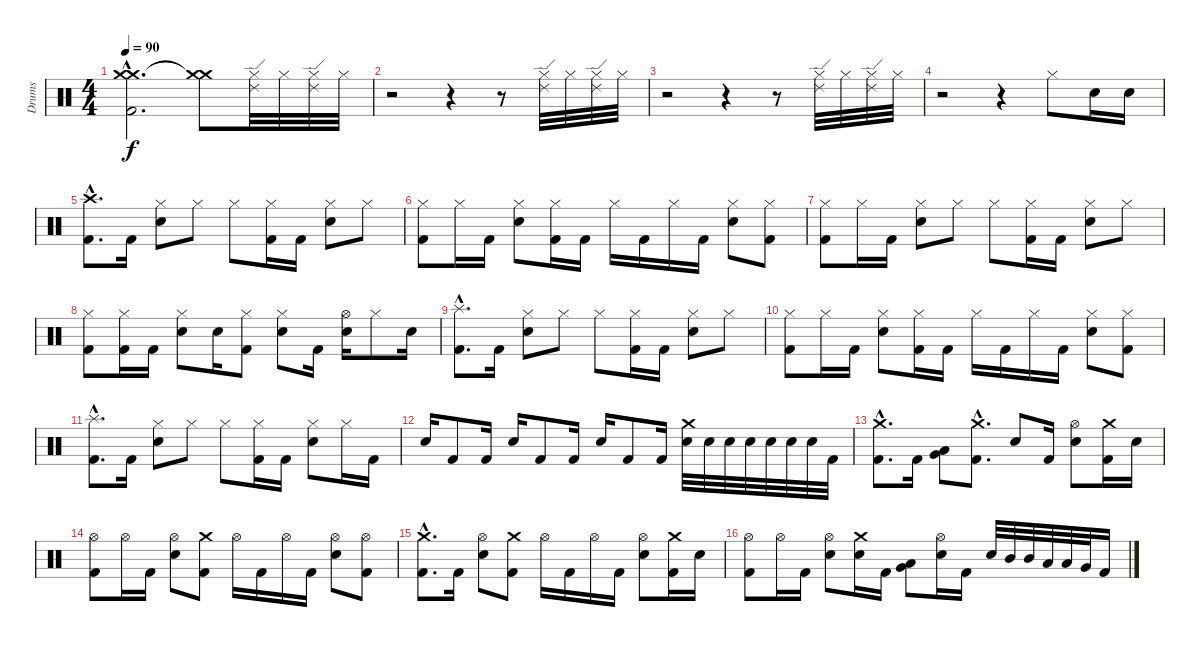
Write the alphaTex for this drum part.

\track ("Drums" "Drums") {instrument percussion}
\staff {score}
\articulation defaults
\ts (4 4)
\tempo 90
\clef neutral
\ks c
("Crash medium (hit)"{hac} "Crash medium (hit)"{hac} "Kick (hit) 2"{hac}).2{d dy f} ("Crash medium (hit)"{t} "Crash medium (hit)"{t}).8 ("Ride (edge) 2" "Hi-Hat (closed)").32 "Hi-Hat (closed)".32 ("Ride (edge) 2" "Hi-Hat (closed)").32 "Hi-Hat (closed)".32 |
r.2 r.4 r.8 ("Ride (edge) 2" "Hi-Hat (closed)").32 "Hi-Hat (closed)".32 ("Ride (edge) 2" "Hi-Hat (closed)").32 "Hi-Hat (closed)".32 |
r.2 r.4 r.8 ("Ride (edge) 2" "Hi-Hat (closed)").32 "Hi-Hat (closed)".32 ("Ride (edge) 2" "Hi-Hat (closed)").32 "Hi-Hat (closed)".32 |
r.2 r.4 "Hi-Hat (closed)".8 "Snare (hit) 2".16 "Snare (hit) 2".16 |
("Crash high (hit)"{hac} "Kick (hit) 2"{hac}).8{d} "Kick (hit) 2".16 ("Hi-Hat (closed)" "Snare (hit) 2").8 "Hi-Hat (closed)".8 "Hi-Hat (closed)".8 ("Hi-Hat (closed)" "Kick (hit) 2").16 "Kick (hit) 2".16 ("Hi-Hat (closed)" "Snare (hit) 2").8 "Hi-Hat (closed)".8 |
("Hi-Hat (closed)" "Kick (hit) 2").8 "Hi-Hat (closed)".16 "Kick (hit) 2".16 ("Hi-Hat (closed)" "Snare (hit) 2").8 ("Hi-Hat (closed)" "Kick (hit) 2").16 "Kick (hit) 2".16 "Hi-Hat (closed)".16 "Kick (hit) 2".16 "Hi-Hat (closed)".16 "Kick (hit) 2".16 ("Hi-Hat (closed)" "Snare (hit) 2").8 ("Hi-Hat (closed)" "Kick (hit) 2").8 |
("Hi-Hat (closed)" "Kick (hit) 2").8 "Hi-Hat (closed)".16 "Kick (hit) 2".16 ("Hi-Hat (closed)" "Snare (hit) 2").8 "Hi-Hat (closed)".8 "Hi-Hat (closed)".8 ("Hi-Hat (closed)" "Kick (hit) 2").16 "Kick (hit) 2".16 ("Hi-Hat (closed)" "Snare (hit) 2").8 "Hi-Hat (closed)".8 |
("Hi-Hat (closed)" "Kick (hit) 2").8 ("Hi-Hat (closed)" "Kick (hit) 2").16 "Kick (hit) 2".16 ("Hi-Hat (closed)" "Snare (hit) 2").8 "Snare (hit) 2".16 ("Hi-Hat (closed)" "Kick (hit) 2").8 ("Hi-Hat (closed)" "Snare (hit) 2").8 "Kick (hit) 2".16 ("Hi-Hat (open)" "Snare (hit) 2").16 "Hi-Hat (closed)".8 "Snare (hit) 2".16 |
("Splash (hit)"{hac} "Kick (hit) 2"{hac}).8{d} "Kick (hit) 2".16 ("Hi-Hat (closed)" "Snare (hit) 2").8 "Hi-Hat (closed)".8 "Hi-Hat (closed)".8 ("Hi-Hat (closed)" "Kick (hit) 2").16 "Kick (hit) 2".16 ("Hi-Hat (closed)" "Snare (hit) 2").8 "Hi-Hat (closed)".8 |
("Hi-Hat (closed)" "Kick (hit) 2").8 "Hi-Hat (closed)".16 "Kick (hit) 2".16 ("Hi-Hat (closed)" "Snare (hit) 2").8 ("Hi-Hat (closed)" "Kick (hit) 2").16 "Kick (hit) 2".16 "Hi-Hat (closed)".16 "Kick (hit) 2".16 "Hi-Hat (closed)".16 "Kick (hit) 2".16 ("Hi-Hat (closed)" "Snare (hit) 2").8 ("Hi-Hat (closed)" "Kick (hit) 2").8 |
("Splash (hit)"{hac} "Kick (hit) 2"{hac}).8{d} "Kick (hit) 2".16 ("Hi-Hat (closed)" "Snare (hit) 2").8 "Hi-Hat (closed)".8 "Hi-Hat (closed)".8 ("Hi-Hat (closed)" "Kick (hit) 2").16 "Kick (hit) 2".16 ("Hi-Hat (closed)" "Snare (hit) 2").8 "Hi-Hat (closed)".16 "Kick (hit) 2".16 |
"Snare (hit) 2".16 "Kick (hit) 2".8 "Kick (hit) 2".16 "Snare (hit) 2".16 "Kick (hit) 2".8 "Kick (hit) 2".16 "Snare (hit) 2".16 "Kick (hit) 2".8 "Kick (hit) 2".16 ("Crash medium (hit)" "Snare (hit) 2").32 "Snare (hit) 2".32 "Snare (hit) 2".32 "Snare (hit) 2".32 "Snare (hit) 2".32 "Snare (hit) 2".32 "Snare (hit) 2".32 "Kick (hit) 2".32 |
("Crash medium (hit)"{hac} "Kick (hit) 2"{hac}).8{d} "Kick (hit) 2".16 ("Very Low Tom (hit)" "Low Tom (hit)").8 ("Crash medium (hit)"{hac} "Kick (hit) 2"{hac}).8{d} "Snare (hit) 2".8 "Kick (hit) 2".16 ("Hi-Hat (open)" "Snare (hit) 2").8 ("Crash medium (hit)" "Kick (hit) 2").16 "Snare (hit) 2".16 |
("Hi-Hat (open)" "Kick (hit) 2").8 "Hi-Hat (open)".16 "Kick (hit) 2".16 ("Hi-Hat (open)" "Snare (hit) 2").8 ("Crash medium (hit)" "Kick (hit) 2").8 "Hi-Hat (open)".16 "Kick (hit) 2".16 "Hi-Hat (open)".16 "Kick (hit) 2".16 ("Hi-Hat (open)" "Snare (hit) 2").8 ("Hi-Hat (open)" "Kick (hit) 2").8 |
("Crash medium (hit)"{hac} "Kick (hit) 2"{hac}).8{d} "Kick (hit) 2".16 ("Hi-Hat (open)" "Snare (hit) 2").8 ("Crash medium (hit)" "Kick (hit) 2").8 "Hi-Hat (open)".16 "Kick (hit) 2".16 "Hi-Hat (open)".16 "Kick (hit) 2".16 ("Hi-Hat (open)" "Snare (hit) 2").8 ("Crash medium (hit)" "Kick (hit) 2").16 "Snare (hit) 2".16 |
("Hi-Hat (open)" "Kick (hit) 2").8 "Hi-Hat (open)".16 "Kick (hit) 2".16 ("Hi-Hat (open)" "Snare (hit) 2").8 ("Crash medium (hit)" "Snare (hit) 2").16 "Kick (hit) 2".16 ("Low Tom (hit)" "Very Low Tom (hit)").8 ("Hi-Hat (open)" "Snare (hit) 2").16 "Kick (hit) 2".16 "Snare (hit) 2".32 "Mid Tom (hit)".32 "Mid Tom (hit)".32 "Low Tom (hit)".32 "Low Tom (hit)".32 "Very Low Tom (hit)".32 "Kick (hit) 2".16
